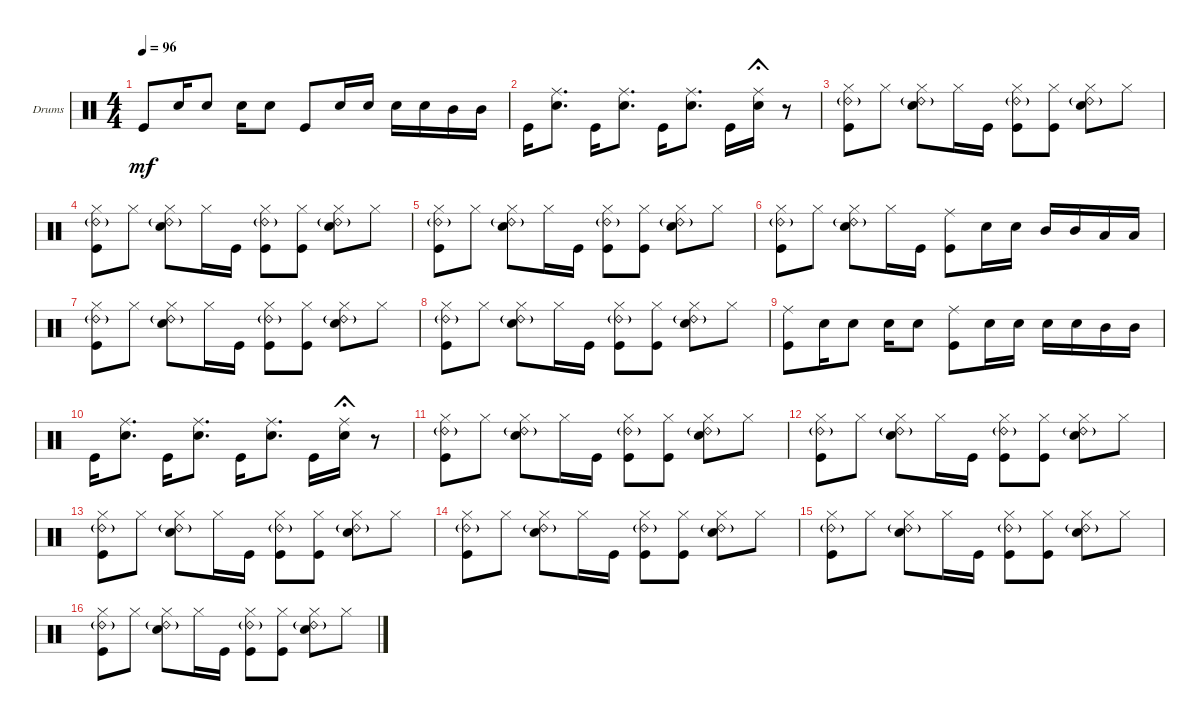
\bracketExtendMode groupsimilarinstruments
\firstSystemTrackNameOrientation horizontal
\otherSystemsTrackNameOrientation horizontal
\track ("Drumkit" "Drums") {instrument percussion}
\staff {score}
\articulation defaults
\ts (4 4)
\tempo 96
\clef neutral
\ks c "Kick (hit)".8{dy mf} "Snare (hit) 2".16 "Snare (hit) 2".8 "Snare (hit) 2".16 "Snare (hit) 2".8 "Kick (hit)".8 "Snare (hit) 2".16 "Snare (hit) 2".16 "Snare (hit) 2".16 "Snare (hit) 2".16 "Mid Tom (hit)".16 "Mid Tom (hit)".16
|
"Kick (hit)".16 ("Snare (hit) 2" "Ride (middle)").8{d} "Kick (hit)".16 ("Snare (hit) 2" "Ride (middle)").8{d} "Kick (hit)".16 ("Snare (hit) 2" "Ride (middle)").8{d} "Kick (hit)".16 ("Snare (hit) 2" "Ride (middle)").16{fermata (short 0)} r.8 |
("Kick (hit)" "Hi-Hat (closed)" "Ride (bell) 2"{g}).8 "Hi-Hat (closed)".8 ("Hi-Hat (closed)" "Snare (hit) 2" "Ride (bell) 2"{g}).8 "Hi-Hat (closed)".16 "Kick (hit)".16 ("Hi-Hat (closed)" "Kick (hit)" "Ride (bell) 2"{g}).8 ("Hi-Hat (closed)" "Kick (hit)").8 ("Hi-Hat (closed)" "Snare (hit) 2" "Ride (bell) 2"{g}).8 "Hi-Hat (closed)".8 |
("Kick (hit)" "Hi-Hat (closed)" "Ride (bell) 2"{g}).8 "Hi-Hat (closed)".8 ("Hi-Hat (closed)" "Snare (hit) 2" "Ride (bell) 2"{g}).8 "Hi-Hat (closed)".16 "Kick (hit)".16 ("Hi-Hat (closed)" "Kick (hit)" "Ride (bell) 2"{g}).8 ("Hi-Hat (closed)" "Kick (hit)").8 ("Hi-Hat (closed)" "Snare (hit) 2" "Ride (bell) 2"{g}).8 "Hi-Hat (closed)".8 |
("Kick (hit)" "Hi-Hat (closed)" "Ride (bell) 2"{g}).8 "Hi-Hat (closed)".8 ("Hi-Hat (closed)" "Snare (hit) 2" "Ride (bell) 2"{g}).8 "Hi-Hat (closed)".16 "Kick (hit)".16 ("Hi-Hat (closed)" "Kick (hit)" "Ride (bell) 2"{g}).8 ("Hi-Hat (closed)" "Kick (hit)").8 ("Hi-Hat (closed)" "Snare (hit) 2" "Ride (bell) 2"{g}).8 "Hi-Hat (closed)".8 |
("Kick (hit)" "Hi-Hat (closed)" "Ride (bell) 2"{g}).8 "Hi-Hat (closed)".8 ("Hi-Hat (closed)" "Snare (hit) 2" "Ride (bell) 2"{g}).8 "Hi-Hat (closed)".16 "Kick (hit)".16 ("Kick (hit)" "Ride (middle)").8 "Snare (hit) 2".16 "Snare (hit) 2".16 "Mid Tom (hit)".16 "Mid Tom (hit)".16 "Low Tom (hit)".16 "Low Tom (hit)".16 |
("Kick (hit)" "Hi-Hat (closed)" "Ride (bell) 2"{g}).8 "Hi-Hat (closed)".8 ("Hi-Hat (closed)" "Snare (hit) 2" "Ride (bell) 2"{g}).8 "Hi-Hat (closed)".16 "Kick (hit)".16 ("Hi-Hat (closed)" "Kick (hit)" "Ride (bell) 2"{g}).8 ("Hi-Hat (closed)" "Kick (hit)").8 ("Hi-Hat (closed)" "Snare (hit) 2" "Ride (bell) 2"{g}).8 "Hi-Hat (closed)".8 |
("Kick (hit)" "Hi-Hat (closed)" "Ride (bell) 2"{g}).8 "Hi-Hat (closed)".8 ("Hi-Hat (closed)" "Snare (hit) 2" "Ride (bell) 2"{g}).8 "Hi-Hat (closed)".16 "Kick (hit)".16 ("Hi-Hat (closed)" "Kick (hit)" "Ride (bell) 2"{g}).8 ("Hi-Hat (closed)" "Kick (hit)").8 ("Hi-Hat (closed)" "Snare (hit) 2" "Ride (bell) 2"{g}).8 "Hi-Hat (closed)".8 |
("Kick (hit)" "Ride (middle)").8 "Snare (hit) 2".16 "Snare (hit) 2".8 "Snare (hit) 2".16 "Snare (hit) 2".8 ("Kick (hit)" "Ride (middle)").8 "Snare (hit) 2".16 "Snare (hit) 2".16 "Snare (hit) 2".16 "Snare (hit) 2".16 "Mid Tom (hit)".16 "Mid Tom (hit)".16 |
"Kick (hit)".16 ("Snare (hit) 2" "Ride (middle)").8{d} "Kick (hit)".16 ("Snare (hit) 2" "Ride (middle)").8{d} "Kick (hit)".16 ("Snare (hit) 2" "Ride (middle)").8{d} "Kick (hit)".16 ("Snare (hit) 2" "Ride (middle)").16{fermata (short 0)} r.8 |
("Kick (hit)" "Hi-Hat (closed)" "Ride (bell) 2"{g}).8 "Hi-Hat (closed)".8 ("Hi-Hat (closed)" "Snare (hit) 2" "Ride (bell) 2"{g}).8 "Hi-Hat (closed)".16 "Kick (hit)".16 ("Hi-Hat (closed)" "Kick (hit)" "Ride (bell) 2"{g}).8 ("Hi-Hat (closed)" "Kick (hit)").8 ("Hi-Hat (closed)" "Snare (hit) 2" "Ride (bell) 2"{g}).8 "Hi-Hat (closed)".8 |
("Kick (hit)" "Hi-Hat (closed)" "Ride (bell) 2"{g}).8 "Hi-Hat (closed)".8 ("Hi-Hat (closed)" "Snare (hit) 2" "Ride (bell) 2"{g}).8 "Hi-Hat (closed)".16 "Kick (hit)".16 ("Hi-Hat (closed)" "Kick (hit)" "Ride (bell) 2"{g}).8 ("Hi-Hat (closed)" "Kick (hit)").8 ("Hi-Hat (closed)" "Snare (hit) 2" "Ride (bell) 2"{g}).8 "Hi-Hat (closed)".8 |
("Kick (hit)" "Hi-Hat (closed)" "Ride (bell) 2"{g}).8 "Hi-Hat (closed)".8 ("Hi-Hat (closed)" "Snare (hit) 2" "Ride (bell) 2"{g}).8 "Hi-Hat (closed)".16 "Kick (hit)".16 ("Hi-Hat (closed)" "Kick (hit)" "Ride (bell) 2"{g}).8 ("Hi-Hat (closed)" "Kick (hit)").8 ("Hi-Hat (closed)" "Snare (hit) 2" "Ride (bell) 2"{g}).8 "Hi-Hat (closed)".8 |
("Kick (hit)" "Hi-Hat (closed)" "Ride (bell) 2"{g}).8 "Hi-Hat (closed)".8 ("Hi-Hat (closed)" "Snare (hit) 2" "Ride (bell) 2"{g}).8 "Hi-Hat (closed)".16 "Kick (hit)".16 ("Hi-Hat (closed)" "Kick (hit)" "Ride (bell) 2"{g}).8 ("Hi-Hat (closed)" "Kick (hit)").8 ("Hi-Hat (closed)" "Snare (hit) 2" "Ride (bell) 2"{g}).8 "Hi-Hat (closed)".8 |
("Kick (hit)" "Hi-Hat (closed)" "Ride (bell) 2"{g}).8 "Hi-Hat (closed)".8 ("Hi-Hat (closed)" "Snare (hit) 2" "Ride (bell) 2"{g}).8 "Hi-Hat (closed)".16 "Kick (hit)".16 ("Hi-Hat (closed)" "Kick (hit)" "Ride (bell) 2"{g}).8 ("Hi-Hat (closed)" "Kick (hit)").8 ("Hi-Hat (closed)" "Snare (hit) 2" "Ride (bell) 2"{g}).8 "Hi-Hat (closed)".8 |
("Kick (hit)" "Hi-Hat (closed)" "Ride (bell) 2"{g}).8 "Hi-Hat (closed)".8 ("Hi-Hat (closed)" "Snare (hit) 2" "Ride (bell) 2"{g}).8 "Hi-Hat (closed)".16 "Kick (hit)".16 ("Hi-Hat (closed)" "Kick (hit)" "Ride (bell) 2"{g}).8 ("Hi-Hat (closed)" "Kick (hit)").8 ("Hi-Hat (closed)" "Snare (hit) 2" "Ride (bell) 2"{g}).8 "Hi-Hat (closed)".8
